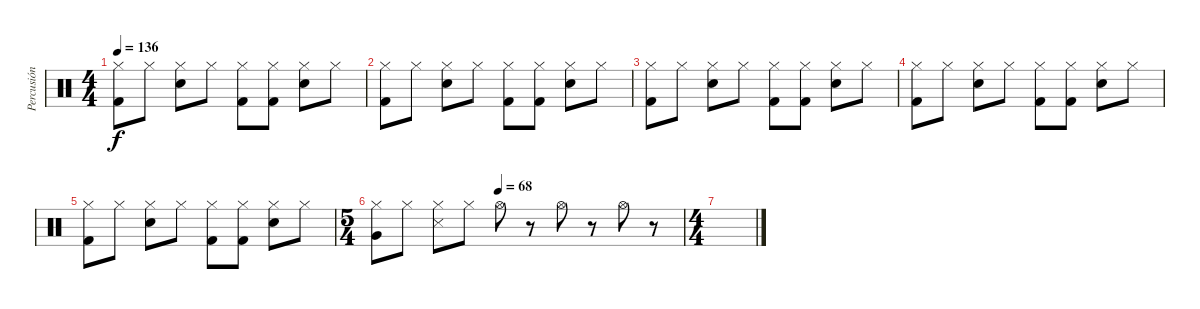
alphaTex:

\track ("Percusión" "Percusión") {instrument percussion}
\staff {score}
\articulation defaults
\ts (4 4)
\tempo 136
\clef neutral
\ks c
("Hi-Hat (closed)" "Kick (hit) 2").8{dy f} "Hi-Hat (closed)".8 ("Hi-Hat (closed)" "Snare (hit) 2").8 "Hi-Hat (closed)".8 ("Hi-Hat (closed)" "Kick (hit) 2").8 ("Hi-Hat (closed)" "Kick (hit) 2").8 ("Hi-Hat (closed)" "Snare (hit) 2").8 "Hi-Hat (closed)".8 |
("Hi-Hat (closed)" "Kick (hit) 2").8 "Hi-Hat (closed)".8 ("Hi-Hat (closed)" "Snare (hit) 2").8 "Hi-Hat (closed)".8 ("Hi-Hat (closed)" "Kick (hit) 2").8 ("Hi-Hat (closed)" "Kick (hit) 2").8 ("Hi-Hat (closed)" "Snare (hit) 2").8 "Hi-Hat (closed)".8 |
("Hi-Hat (closed)" "Kick (hit) 2").8 "Hi-Hat (closed)".8 ("Hi-Hat (closed)" "Snare (hit) 2").8 "Hi-Hat (closed)".8 ("Hi-Hat (closed)" "Kick (hit) 2").8 ("Hi-Hat (closed)" "Kick (hit) 2").8 ("Hi-Hat (closed)" "Snare (hit) 2").8 "Hi-Hat (closed)".8 |
("Hi-Hat (closed)" "Kick (hit) 2").8 "Hi-Hat (closed)".8 ("Hi-Hat (closed)" "Snare (hit) 2").8 "Hi-Hat (closed)".8 ("Hi-Hat (closed)" "Kick (hit) 2").8 ("Hi-Hat (closed)" "Kick (hit) 2").8 ("Hi-Hat (closed)" "Snare (hit) 2").8 "Hi-Hat (closed)".8 |
("Hi-Hat (closed)" "Kick (hit) 2").8 "Hi-Hat (closed)".8 ("Hi-Hat (closed)" "Snare (hit) 2").8 "Hi-Hat (closed)".8 ("Hi-Hat (closed)" "Kick (hit) 2").8 ("Hi-Hat (closed)" "Kick (hit) 2").8 ("Hi-Hat (closed)" "Snare (hit) 2").8 "Hi-Hat (closed)".8 |
\ts (5 4)
\tempo (68 0.4)
("Hi-Hat (closed)" "Very Low Tom (hit)").8 "Hi-Hat (closed)".8 ("Hi-Hat (closed)" "Snare (side stick) 3").8 "Hi-Hat (closed)".8 "Hi-Hat (open)".8 r.8 "Hi-Hat (open)".8 r.8 "Hi-Hat (open)".8 r.8 |
\ts (4 4)
